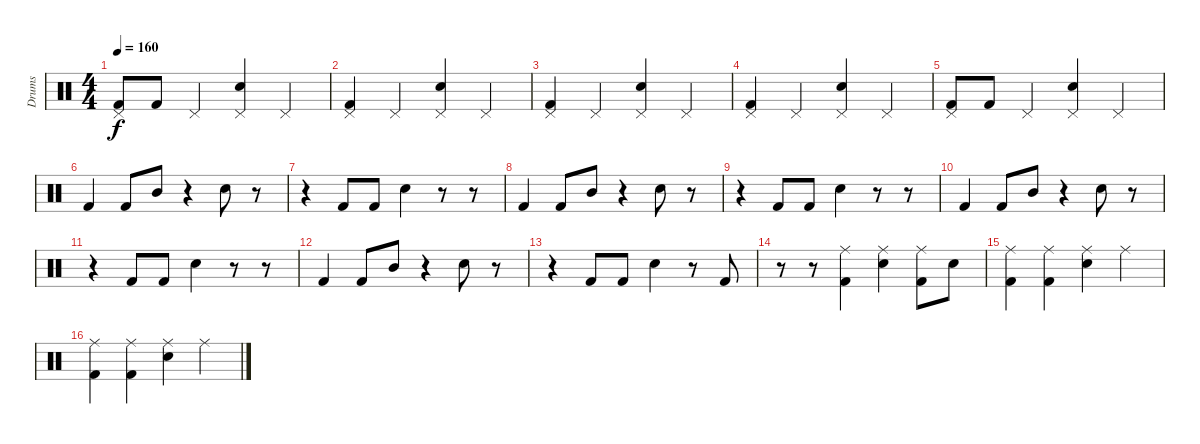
\track ("Drums" "Drums") {instrument percussion}
\staff {score}
\articulation defaults
\ts (4 4)
\tempo 160
\clef neutral
\ks c
("Pedal Hi-Hat (hit)" "Kick (hit) 2").8{dy f} "Kick (hit) 2".8 "Pedal Hi-Hat (hit)".4 ("Pedal Hi-Hat (hit)" "Snare (hit) 2").4 "Pedal Hi-Hat (hit)".4 |
("Pedal Hi-Hat (hit)" "Kick (hit) 2").4 "Pedal Hi-Hat (hit)".4 ("Pedal Hi-Hat (hit)" "Snare (hit) 2").4 "Pedal Hi-Hat (hit)".4 |
("Pedal Hi-Hat (hit)" "Kick (hit) 2").4 "Pedal Hi-Hat (hit)".4 ("Pedal Hi-Hat (hit)" "Snare (hit) 2").4 "Pedal Hi-Hat (hit)".4 |
("Pedal Hi-Hat (hit)" "Kick (hit) 2").4 "Pedal Hi-Hat (hit)".4 ("Pedal Hi-Hat (hit)" "Snare (hit) 2").4 "Pedal Hi-Hat (hit)".4 |
("Pedal Hi-Hat (hit)" "Kick (hit) 2").8 "Kick (hit) 2".8 "Pedal Hi-Hat (hit)".4 ("Pedal Hi-Hat (hit)" "Snare (hit) 2").4 "Pedal Hi-Hat (hit)".4 |
"Kick (hit) 2".4{volume 5} "Kick (hit) 2".8 "Mid Tom (hit)".8 r.4 "Snare (hit) 2".8 r.8 |
r.4 "Kick (hit) 2".8 "Kick (hit) 2".8 "Snare (hit) 2".4 r.8 r.8 |
"Kick (hit) 2".4 "Kick (hit) 2".8 "Mid Tom (hit)".8 r.4 "Snare (hit) 2".8 r.8 |
r.4 "Kick (hit) 2".8 "Kick (hit) 2".8 "Snare (hit) 2".4 r.8 r.8 |
"Kick (hit) 2".4 "Kick (hit) 2".8 "Mid Tom (hit)".8 r.4 "Snare (hit) 2".8 r.8 |
r.4 "Kick (hit) 2".8 "Kick (hit) 2".8 "Snare (hit) 2".4 r.8 r.8 |
"Kick (hit) 2".4 "Kick (hit) 2".8 "Mid Tom (hit)".8 r.4 "Snare (hit) 2".8 r.8 |
r.4 "Kick (hit) 2".8 "Kick (hit) 2".8 "Snare (hit) 2".4{volume 13} r.8 "Kick (hit) 2".8 |
r.8 r.8 ("Ride (middle)" "Kick (hit) 2").4 ("Ride (middle)" "Snare (hit) 2").4 ("Ride (middle)" "Kick (hit) 2").8 "Snare (hit) 2".8 |
("Ride (middle)" "Kick (hit) 2").4 ("Ride (middle)" "Kick (hit) 2").4 ("Ride (middle)" "Snare (hit) 2").4 "Ride (middle)".4 |
("Ride (middle)" "Kick (hit) 2").4 ("Ride (middle)" "Kick (hit) 2").4 ("Ride (middle)" "Snare (hit) 2").4 "Ride (middle)".4
